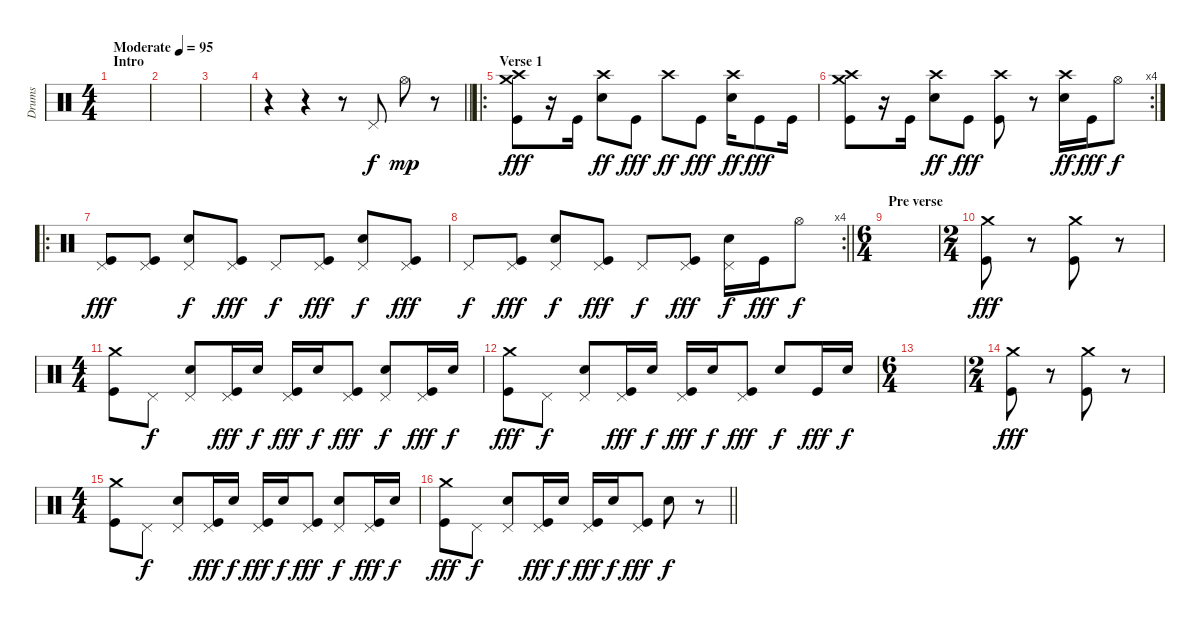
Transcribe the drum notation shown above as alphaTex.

\track ("Drums" "Drums") {instrument percussion}
\staff {score}
\articulation defaults
\ts (4 4)
\section ("" "Intro")
\tempo (95 "Moderate")
\clef neutral
\ks c
|
|
|
\barLineRight lightlight
r.4 r.4 r.8 "Pedal Hi-Hat (hit)".8 "Hi-Hat (open)".8{dy mp} r.8 |
\ro
\section ("" "Verse 1")
("Crash medium (hit)" "Crash high (hit)" "Kick (hit)").8{dy fff} r.16 "Kick (hit)".16 ("Crash high (hit)" "Snare (hit) 2").8{dy ff} "Kick (hit)".8{dy fff} "Crash high (hit)".8{dy ff} "Kick (hit)".8{dy fff} ("Crash high (hit)" "Snare (hit) 2").16{dy ff} "Kick (hit)".8{dy fff} "Kick (hit)".16 |
\rc 4
("Crash medium (hit)" "Crash high (hit)" "Kick (hit)").8 r.16 "Kick (hit)".16 ("Crash high (hit)" "Snare (hit) 2").8{dy ff} "Kick (hit)".8{dy fff} ("Crash high (hit)" "Kick (hit)").8 r.8 ("Crash high (hit)" "Snare (hit) 2").16{dy ff} "Kick (hit)".16{dy fff} "Hi-Hat (open)".8{dy f} |
\ro
("Pedal Hi-Hat (hit)" "Kick (hit)").8{dy fff} ("Pedal Hi-Hat (hit)" "Kick (hit)").8 ("Pedal Hi-Hat (hit)" "Snare (hit) 2").8{dy f} ("Pedal Hi-Hat (hit)" "Kick (hit)").8{dy fff} "Pedal Hi-Hat (hit)".8{dy f} ("Pedal Hi-Hat (hit)" "Kick (hit)").8{dy fff} ("Pedal Hi-Hat (hit)" "Snare (hit) 2").8{dy f} ("Pedal Hi-Hat (hit)" "Kick (hit)").8{dy fff} |
\rc 4
\barLineRight lightlight "Pedal Hi-Hat (hit)".8{dy f}
("Pedal Hi-Hat (hit)" "Kick (hit)").8{dy fff} ("Pedal Hi-Hat (hit)" "Snare (hit) 2").8{dy f} ("Pedal Hi-Hat (hit)" "Kick (hit)").8{dy fff} "Pedal Hi-Hat (hit)".8{dy f} ("Pedal Hi-Hat (hit)" "Kick (hit)").8{dy fff} ("Pedal Hi-Hat (hit)" "Snare (hit) 2").16{dy f} "Kick (hit)".16{dy fff} "Hi-Hat (open)".8{dy f} |
\ts (6 4)
\section ("" "Pre verse")
|
\ts (2 4)
("Crash medium (hit)" "Kick (hit)").8{dy fff} r.8 ("Crash medium (hit)" "Kick (hit)").8 r.8 |
\ts (4 4)
("Crash medium (hit)" "Kick (hit)").8 "Pedal Hi-Hat (hit)".8{dy f} ("Pedal Hi-Hat (hit)" "Snare (hit) 2").8 ("Pedal Hi-Hat (hit)" "Kick (hit)").16{dy fff} "Snare (hit) 2".16{dy f} ("Pedal Hi-Hat (hit)" "Kick (hit)").16{dy fff} "Snare (hit) 2".16{dy f} ("Pedal Hi-Hat (hit)" "Kick (hit)").8{dy fff} ("Pedal Hi-Hat (hit)" "Snare (hit) 2").8{dy f} ("Pedal Hi-Hat (hit)" "Kick (hit)").16{dy fff} "Snare (hit) 2".16{dy f} |
("Crash medium (hit)" "Kick (hit)").8{dy fff} "Pedal Hi-Hat (hit)".8{dy f} ("Pedal Hi-Hat (hit)" "Snare (hit) 2").8 ("Pedal Hi-Hat (hit)" "Kick (hit)").16{dy fff} "Snare (hit) 2".16{dy f} ("Pedal Hi-Hat (hit)" "Kick (hit)").16{dy fff} "Snare (hit) 2".16{dy f} ("Pedal Hi-Hat (hit)" "Kick (hit)").8{dy fff} "Snare (hit) 2".8{dy f} "Kick (hit)".16{dy fff} "Snare (hit) 2".16{dy f} |
\ts (6 4)
|
\ts (2 4)
("Crash medium (hit)" "Kick (hit)").8{dy fff} r.8 ("Crash medium (hit)" "Kick (hit)").8 r.8 |
\ts (4 4)
("Crash medium (hit)" "Kick (hit)").8 "Pedal Hi-Hat (hit)".8{dy f} ("Pedal Hi-Hat (hit)" "Snare (hit) 2").8 ("Pedal Hi-Hat (hit)" "Kick (hit)").16{dy fff} "Snare (hit) 2".16{dy f} ("Pedal Hi-Hat (hit)" "Kick (hit)").16{dy fff} "Snare (hit) 2".16{dy f} ("Pedal Hi-Hat (hit)" "Kick (hit)").8{dy fff} ("Pedal Hi-Hat (hit)" "Snare (hit) 2").8{dy f} ("Pedal Hi-Hat (hit)" "Kick (hit)").16{dy fff} "Snare (hit) 2".16{dy f} |
\barLineRight lightlight
("Crash medium (hit)" "Kick (hit)").8{dy fff} "Pedal Hi-Hat (hit)".8{dy f} ("Pedal Hi-Hat (hit)" "Snare (hit) 2").8 ("Pedal Hi-Hat (hit)" "Kick (hit)").16{dy fff} "Snare (hit) 2".16{dy f} ("Pedal Hi-Hat (hit)" "Kick (hit)").16{dy fff} "Snare (hit) 2".16{dy f} ("Pedal Hi-Hat (hit)" "Kick (hit)").8{dy fff} "Snare (hit) 2".8{dy f} r.8
